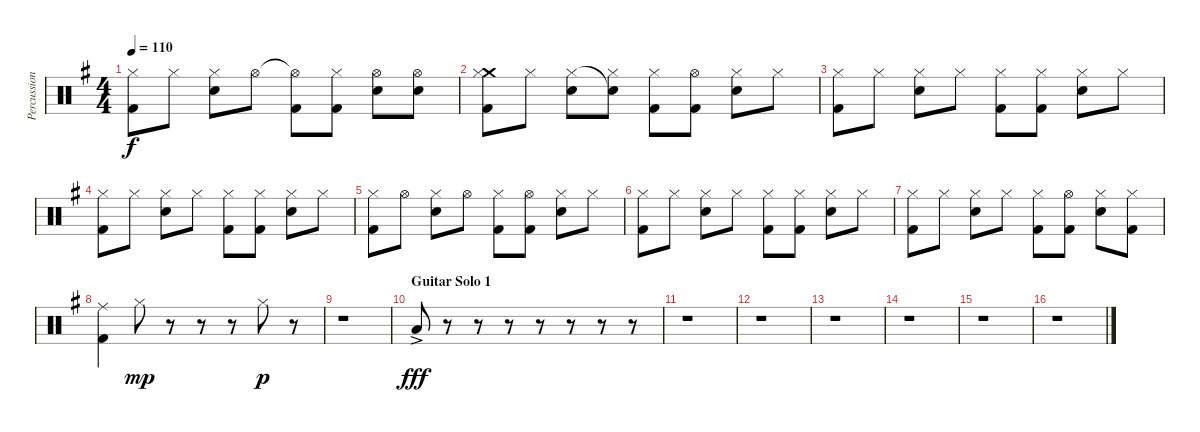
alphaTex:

\track ("Percussion" "Percussion") {instrument percussion}
\staff {score}
\articulation defaults
\ts (4 4)
\tempo 110
\clef neutral
\ks g
("Hi-Hat (closed)" "Kick (hit) 2").8{dy f} "Hi-Hat (closed)".8 ("Hi-Hat (closed)" "Electric Snare (hit)").8 "Hi-Hat (open)".8 ("Hi-Hat (open)"{t} "Kick (hit) 2").8 ("Hi-Hat (closed)" "Kick (hit) 2").8 ("Hi-Hat (open)" "Electric Snare (hit)").8 ("Hi-Hat (open)" "Electric Snare (hit)").8 |
("Crash medium (hit)" "Hi-Hat (closed)" "Kick (hit) 2").8 "Hi-Hat (closed)".8 ("Hi-Hat (closed)" "Electric Snare (hit)").8 ("Snare (hit)"{t} "Hi-Hat (closed)").8 ("Hi-Hat (closed)" "Kick (hit) 2").8 ("Hi-Hat (open)" "Kick (hit) 2").8 ("Hi-Hat (closed)" "Electric Snare (hit)").8 "Hi-Hat (closed)".8 |
("Hi-Hat (closed)" "Kick (hit) 2").8 "Hi-Hat (closed)".8 ("Hi-Hat (closed)" "Electric Snare (hit)").8 "Hi-Hat (closed)".8 ("Hi-Hat (closed)" "Kick (hit) 2").8 ("Hi-Hat (closed)" "Kick (hit) 2").8 ("Hi-Hat (closed)" "Electric Snare (hit)").8 "Hi-Hat (closed)".8 |
("Hi-Hat (closed)" "Kick (hit) 2").8 "Hi-Hat (closed)".8 ("Hi-Hat (closed)" "Electric Snare (hit)").8 "Hi-Hat (closed)".8 ("Hi-Hat (closed)" "Kick (hit) 2").8 ("Hi-Hat (closed)" "Kick (hit) 2").8 ("Hi-Hat (closed)" "Electric Snare (hit)").8 "Hi-Hat (closed)".8 |
("Hi-Hat (closed)" "Kick (hit) 2").8 "Hi-Hat (open)".8 ("Hi-Hat (closed)" "Electric Snare (hit)").8 "Hi-Hat (open)".8 ("Hi-Hat (closed)" "Kick (hit) 2").8 ("Hi-Hat (open)" "Kick (hit) 2").8 ("Hi-Hat (closed)" "Electric Snare (hit)").8 "Hi-Hat (closed)".8 |
("Hi-Hat (closed)" "Kick (hit) 2").8 "Hi-Hat (closed)".8 ("Hi-Hat (closed)" "Electric Snare (hit)").8 "Hi-Hat (closed)".8 ("Hi-Hat (closed)" "Kick (hit) 2").8 ("Hi-Hat (closed)" "Kick (hit) 2").8 ("Hi-Hat (closed)" "Electric Snare (hit)").8 "Hi-Hat (closed)".8 |
("Hi-Hat (closed)" "Kick (hit) 2").8 "Hi-Hat (closed)".8 ("Hi-Hat (closed)" "Electric Snare (hit)").8 "Hi-Hat (closed)".8 ("Hi-Hat (closed)" "Kick (hit) 2").8 ("Hi-Hat (open)" "Kick (hit) 2").8 ("Hi-Hat (closed)" "Electric Snare (hit)").8 ("Hi-Hat (closed)" "Kick (hit) 2").8 |
("Ride (middle)" "Kick (hit) 2").4 "Hi-Hat (closed)".8{dy mp} r.8 r.8 r.8 "Hi-Hat (closed)".8{dy p} r.8 |
r.1 |
\section ("" "Guitar Solo 1")
"Low Floor Tom (hit)"{ac}.8{dy fff} r.8 r.8 r.8 r.8 r.8 r.8 r.8 |
r.1 |
r.1 |
r.1 |
r.1 |
r.1 |
r.1
